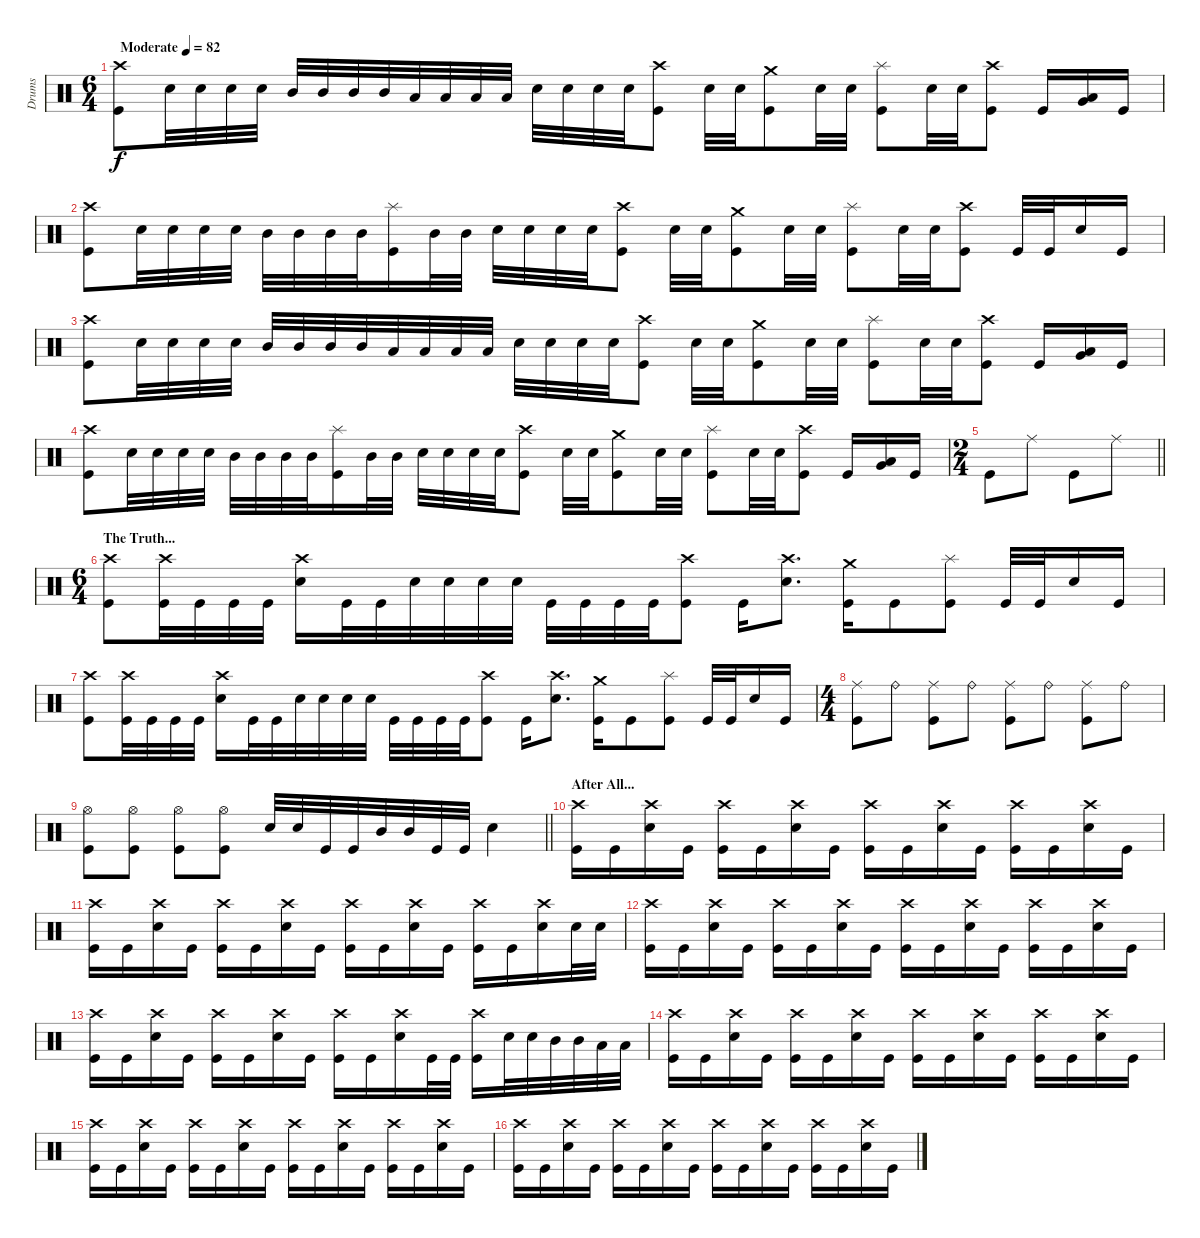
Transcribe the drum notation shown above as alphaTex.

\track ("Drums" "Drums") {instrument percussion bank 177}
\staff {score}
\articulation defaults
\ts (6 4)
\tempo (82 "Moderate")
\clef neutral
\ks c
("Crash high (hit)" "Kick (hit)").8{dy f} "Snare (hit) 2".32 "Snare (hit) 2".32 "Snare (hit) 2".32 "Snare (hit) 2".32 "Mid Tom (hit)".32 "Mid Tom (hit)".32 "Mid Tom (hit)".32 "Mid Tom (hit)".32 "Low Tom (hit)".32 "Low Tom (hit)".32 "Low Tom (hit)".32 "Low Tom (hit)".32 "Snare (hit) 2".32 "Snare (hit) 2".32 "Snare (hit) 2".32 "Snare (hit) 2".32 ("Crash high (hit)" "Kick (hit)").8 "Snare (hit) 2".32 "Snare (hit) 2".32 ("Crash medium (hit)" "Kick (hit)").8 "Snare (hit) 2".32 "Snare (hit) 2".32 ("Splash (hit)" "Kick (hit)").8 "Snare (hit) 2".32 "Snare (hit) 2".32 ("Crash high (hit)" "Kick (hit)").8 "Kick (hit)".16 ("Very Low Tom (hit)" "Low Floor Tom (hit)").16 "Kick (hit)".16 |
("Crash high (hit)" "Kick (hit)").8 "Snare (hit) 2".32 "Snare (hit) 2".32 "Snare (hit) 2".32 "Snare (hit) 2".32 "Mid Tom (hit)".32 "Mid Tom (hit)".32 "Mid Tom (hit)".32 "Mid Tom (hit)".32 ("Splash (hit)" "Kick (hit)").16 "Mid Tom (hit)".32 "Mid Tom (hit)".32 "Snare (hit) 2".32 "Snare (hit) 2".32 "Snare (hit) 2".32 "Snare (hit) 2".32 ("Crash high (hit)" "Kick (hit)").8 "Snare (hit) 2".32 "Snare (hit) 2".32 ("Crash medium (hit)" "Kick (hit)").8 "Snare (hit) 2".32 "Snare (hit) 2".32 ("Splash (hit)" "Kick (hit)").8 "Snare (hit) 2".32 "Snare (hit) 2".32 ("Crash high (hit)" "Kick (hit)").8 "Kick (hit)".32 "Kick (hit)".32 "Snare (hit) 2".16 "Kick (hit)".16 |
("Crash high (hit)" "Kick (hit)").8 "Snare (hit) 2".32 "Snare (hit) 2".32 "Snare (hit) 2".32 "Snare (hit) 2".32 "Mid Tom (hit)".32 "Mid Tom (hit)".32 "Mid Tom (hit)".32 "Mid Tom (hit)".32 "Low Tom (hit)".32 "Low Tom (hit)".32 "Low Tom (hit)".32 "Low Tom (hit)".32 "Snare (hit) 2".32 "Snare (hit) 2".32 "Snare (hit) 2".32 "Snare (hit) 2".32 ("Crash high (hit)" "Kick (hit)").8 "Snare (hit) 2".32 "Snare (hit) 2".32 ("Crash medium (hit)" "Kick (hit)").8 "Snare (hit) 2".32 "Snare (hit) 2".32 ("Splash (hit)" "Kick (hit)").8 "Snare (hit) 2".32 "Snare (hit) 2".32 ("Crash high (hit)" "Kick (hit)").8 "Kick (hit)".16 ("Very Low Tom (hit)" "Low Floor Tom (hit)").16 "Kick (hit)".16 |
("Crash high (hit)" "Kick (hit)").8 "Snare (hit) 2".32 "Snare (hit) 2".32 "Snare (hit) 2".32 "Snare (hit) 2".32 "Mid Tom (hit)".32 "Mid Tom (hit)".32 "Mid Tom (hit)".32 "Mid Tom (hit)".32 ("Splash (hit)" "Kick (hit)").16 "Mid Tom (hit)".32 "Mid Tom (hit)".32 "Snare (hit) 2".32 "Snare (hit) 2".32 "Snare (hit) 2".32 "Snare (hit) 2".32 ("Crash high (hit)" "Kick (hit)").8 "Snare (hit) 2".32 "Snare (hit) 2".32 ("Crash medium (hit)" "Kick (hit)").8 "Snare (hit) 2".32 "Snare (hit) 2".32 ("Splash (hit)" "Kick (hit)").8 "Snare (hit) 2".32 "Snare (hit) 2".32 ("Crash high (hit)" "Kick (hit)").8 "Kick (hit)".16 ("Very Low Tom (hit)" "Low Floor Tom (hit)").16 "Kick (hit)".16 |
\ts (2 4)
\barLineRight lightlight "Kick (hit)".8 "Ride (middle)".8 "Kick (hit)".8 "Ride (middle)".8
|
\ts (6 4)
\section ("" "The Truth...")
("Crash high (hit)" "Kick (hit)").8 ("Crash high (hit)" "Kick (hit)").32 "Kick (hit)".32 "Kick (hit)".32 "Kick (hit)".32 ("Crash high (hit)" "Snare (hit) 2").16 "Kick (hit)".32 "Kick (hit)".32 "Snare (hit) 2".32 "Snare (hit) 2".32 "Snare (hit) 2".32 "Snare (hit) 2".32 "Kick (hit)".32 "Kick (hit)".32 "Kick (hit)".32 "Kick (hit)".32 ("Crash high (hit)" "Kick (hit)").8 "Kick (hit)".16 ("Crash high (hit)" "Snare (hit) 2").8{d} ("Crash medium (hit)" "Kick (hit)").16 "Kick (hit)".8 ("Splash (hit)" "Kick (hit)").8 "Kick (hit)".32 "Kick (hit)".32 "Snare (hit) 2".16 "Kick (hit)".16 |
("Crash high (hit)" "Kick (hit)").8 ("Crash high (hit)" "Kick (hit)").32 "Kick (hit)".32 "Kick (hit)".32 "Kick (hit)".32 ("Crash high (hit)" "Snare (hit) 2").16 "Kick (hit)".32 "Kick (hit)".32 "Snare (hit) 2".32 "Snare (hit) 2".32 "Snare (hit) 2".32 "Snare (hit) 2".32 "Kick (hit)".32 "Kick (hit)".32 "Kick (hit)".32 "Kick (hit)".32 ("Crash high (hit)" "Kick (hit)").8 "Kick (hit)".16 ("Crash high (hit)" "Snare (hit) 2").8{d} ("Crash medium (hit)" "Kick (hit)").16 "Kick (hit)".8 ("Splash (hit)" "Kick (hit)").8 "Kick (hit)".32 "Kick (hit)".32 "Snare (hit) 2".16 "Kick (hit)".16 |
\ts (4 4)
("Ride (middle)" "Kick (hit)").8 "Ride (bell)".8 ("Ride (middle)" "Kick (hit)").8 "Ride (bell)".8 ("Ride (middle)" "Kick (hit)").8 "Ride (bell)".8 ("Ride (middle)" "Kick (hit)").8 "Ride (bell)".8 |
\barLineRight lightlight
("Hi-Hat (open)" "Kick (hit)").8 ("Hi-Hat (open)" "Kick (hit)").8 ("Hi-Hat (open)" "Kick (hit)").8 ("Hi-Hat (open)" "Kick (hit)").8 "Snare (hit) 2".32 "Snare (hit) 2".32 "Kick (hit)".32 "Kick (hit)".32 "Mid Tom (hit)".32 "Mid Tom (hit)".32 "Kick (hit)".32 "Kick (hit)".32 "Snare (hit) 2".4 |
\section ("" "After All...")
("Crash high (hit)" "Kick (hit)").16 "Kick (hit)".16 ("Crash high (hit)" "Snare (hit) 2").16 "Kick (hit)".16 ("Crash high (hit)" "Kick (hit)").16 "Kick (hit)".16 ("Crash high (hit)" "Snare (hit) 2").16 "Kick (hit)".16 ("Crash high (hit)" "Kick (hit)").16 "Kick (hit)".16 ("Crash high (hit)" "Snare (hit) 2").16 "Kick (hit)".16 ("Crash high (hit)" "Kick (hit)").16 "Kick (hit)".16 ("Crash high (hit)" "Snare (hit) 2").16 "Kick (hit)".16 |
("Crash high (hit)" "Kick (hit)").16 "Kick (hit)".16 ("Crash high (hit)" "Snare (hit) 2").16 "Kick (hit)".16 ("Crash high (hit)" "Kick (hit)").16 "Kick (hit)".16 ("Crash high (hit)" "Snare (hit) 2").16 "Kick (hit)".16 ("Crash high (hit)" "Kick (hit)").16 "Kick (hit)".16 ("Crash high (hit)" "Snare (hit) 2").16 "Kick (hit)".16 ("Crash high (hit)" "Kick (hit)").16 "Kick (hit)".16 ("Crash high (hit)" "Snare (hit) 2").16 "Snare (hit) 2".32 "Snare (hit) 2".32 |
("Crash high (hit)" "Kick (hit)").16 "Kick (hit)".16 ("Crash high (hit)" "Snare (hit) 2").16 "Kick (hit)".16 ("Crash high (hit)" "Kick (hit)").16 "Kick (hit)".16 ("Crash high (hit)" "Snare (hit) 2").16 "Kick (hit)".16 ("Crash high (hit)" "Kick (hit)").16 "Kick (hit)".16 ("Crash high (hit)" "Snare (hit) 2").16 "Kick (hit)".16 ("Crash high (hit)" "Kick (hit)").16 "Kick (hit)".16 ("Crash high (hit)" "Snare (hit) 2").16 "Kick (hit)".16 |
("Crash high (hit)" "Kick (hit)").16 "Kick (hit)".16 ("Crash high (hit)" "Snare (hit) 2").16 "Kick (hit)".16 ("Crash high (hit)" "Kick (hit)").16 "Kick (hit)".16 ("Crash high (hit)" "Snare (hit) 2").16 "Kick (hit)".16 ("Crash high (hit)" "Kick (hit)").16 "Kick (hit)".16 ("Crash high (hit)" "Snare (hit) 2").16 "Kick (hit)".32 "Kick (hit)".32 ("Crash high (hit)" "Kick (hit)").16 "Snare (hit) 2".32 "Snare (hit) 2".32 "Mid Tom (hit)".32 "Mid Tom (hit)".32 "Low Tom (hit)".32 "Low Tom (hit)".32 |
("Crash high (hit)" "Kick (hit)").16 "Kick (hit)".16 ("Crash high (hit)" "Snare (hit) 2").16 "Kick (hit)".16 ("Crash high (hit)" "Kick (hit)").16 "Kick (hit)".16 ("Crash high (hit)" "Snare (hit) 2").16 "Kick (hit)".16 ("Crash high (hit)" "Kick (hit)").16 "Kick (hit)".16 ("Crash high (hit)" "Snare (hit) 2").16 "Kick (hit)".16 ("Crash high (hit)" "Kick (hit)").16 "Kick (hit)".16 ("Crash high (hit)" "Snare (hit) 2").16 "Kick (hit)".16 |
("Crash high (hit)" "Kick (hit)").16 "Kick (hit)".16 ("Crash high (hit)" "Snare (hit) 2").16 "Kick (hit)".16 ("Crash high (hit)" "Kick (hit)").16 "Kick (hit)".16 ("Crash high (hit)" "Snare (hit) 2").16 "Kick (hit)".16 ("Crash high (hit)" "Kick (hit)").16 "Kick (hit)".16 ("Crash high (hit)" "Snare (hit) 2").16 "Kick (hit)".16 ("Crash high (hit)" "Kick (hit)").16 "Kick (hit)".16 ("Crash high (hit)" "Snare (hit) 2").16 "Kick (hit)".16 |
("Crash high (hit)" "Kick (hit)").16 "Kick (hit)".16 ("Crash high (hit)" "Snare (hit) 2").16 "Kick (hit)".16 ("Crash high (hit)" "Kick (hit)").16 "Kick (hit)".16 ("Crash high (hit)" "Snare (hit) 2").16 "Kick (hit)".16 ("Crash high (hit)" "Kick (hit)").16 "Kick (hit)".16 ("Crash high (hit)" "Snare (hit) 2").16 "Kick (hit)".16 ("Crash high (hit)" "Kick (hit)").16 "Kick (hit)".16 ("Crash high (hit)" "Snare (hit) 2").16 "Kick (hit)".16
